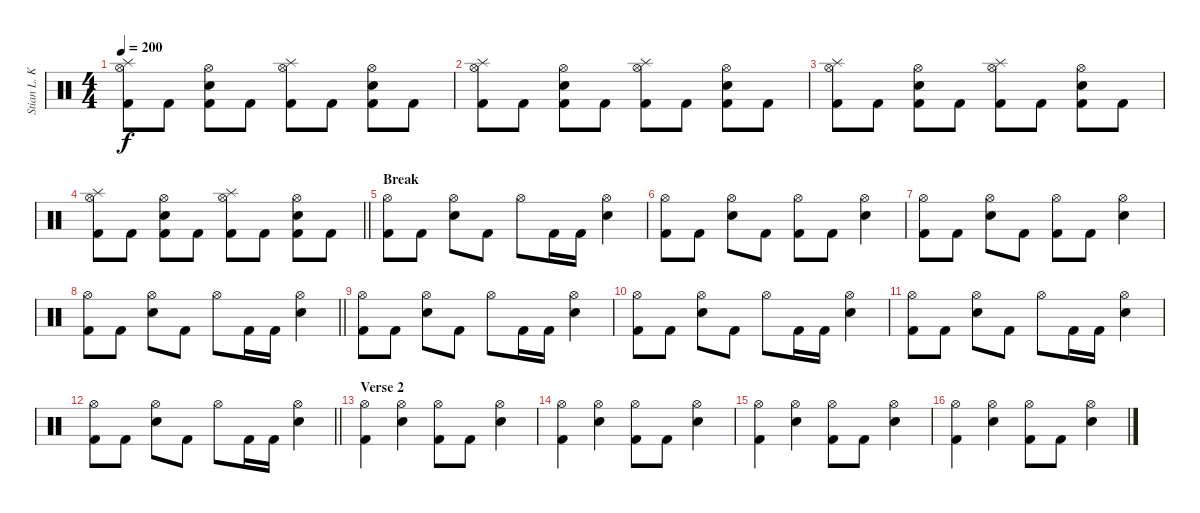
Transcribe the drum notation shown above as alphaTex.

\track ("Stian L. Kristoffersen - Drums" "Stian L. K") {instrument percussion}
\staff {score}
\articulation defaults
\ts (4 4)
\tempo 200
\clef neutral
\ks c
("Splash (hit)" "Hi-Hat (open)" "Kick (hit) 2").8{dy f} "Kick (hit) 2".8 ("Hi-Hat (open)" "Electric Snare (hit)" "Kick (hit) 2").8 "Kick (hit) 2".8 ("Splash (hit)" "Hi-Hat (open)" "Kick (hit) 2").8 "Kick (hit) 2".8 ("Hi-Hat (open)" "Electric Snare (hit)" "Kick (hit) 2").8 "Kick (hit) 2".8 |
("Splash (hit)" "Hi-Hat (open)" "Kick (hit) 2").8 "Kick (hit) 2".8 ("Hi-Hat (open)" "Electric Snare (hit)" "Kick (hit) 2").8 "Kick (hit) 2".8 ("Splash (hit)" "Hi-Hat (open)" "Kick (hit) 2").8 "Kick (hit) 2".8 ("Hi-Hat (open)" "Electric Snare (hit)" "Kick (hit) 2").8 "Kick (hit) 2".8 |
("Splash (hit)" "Hi-Hat (open)" "Kick (hit) 2").8 "Kick (hit) 2".8 ("Hi-Hat (open)" "Electric Snare (hit)" "Kick (hit) 2").8 "Kick (hit) 2".8 ("Splash (hit)" "Hi-Hat (open)" "Kick (hit) 2").8 "Kick (hit) 2".8 ("Hi-Hat (open)" "Electric Snare (hit)" "Kick (hit) 2").8 "Kick (hit) 2".8 |
\barLineRight lightlight
("Splash (hit)" "Hi-Hat (open)" "Kick (hit) 2").8 "Kick (hit) 2".8 ("Hi-Hat (open)" "Electric Snare (hit)" "Kick (hit) 2").8 "Kick (hit) 2".8 ("Splash (hit)" "Hi-Hat (open)" "Kick (hit) 2").8 "Kick (hit) 2".8 ("Hi-Hat (open)" "Electric Snare (hit)" "Kick (hit) 2").8 "Kick (hit) 2".8 |
\section ("" "Break")
("Hi-Hat (open)" "Kick (hit) 2").8 "Kick (hit) 2".8 ("Hi-Hat (open)" "Electric Snare (hit)").8 "Kick (hit) 2".8 "Hi-Hat (open)".8 "Kick (hit) 2".16 "Kick (hit) 2".16 ("Hi-Hat (open)" "Electric Snare (hit)").4 |
("Hi-Hat (open)" "Kick (hit) 2").8 "Kick (hit) 2".8 ("Hi-Hat (open)" "Electric Snare (hit)").8 "Kick (hit) 2".8 ("Hi-Hat (open)" "Kick (hit) 2").8 "Kick (hit) 2".8 ("Hi-Hat (open)" "Electric Snare (hit)").4 |
("Hi-Hat (open)" "Kick (hit) 2").8 "Kick (hit) 2".8 ("Hi-Hat (open)" "Electric Snare (hit)").8 "Kick (hit) 2".8 ("Hi-Hat (open)" "Kick (hit) 2").8 "Kick (hit) 2".8 ("Hi-Hat (open)" "Electric Snare (hit)").4 |
\barLineRight lightlight
("Hi-Hat (open)" "Kick (hit) 2").8 "Kick (hit) 2".8 ("Hi-Hat (open)" "Electric Snare (hit)").8 "Kick (hit) 2".8 "Hi-Hat (open)".8 "Kick (hit) 2".16 "Kick (hit) 2".16 ("Hi-Hat (open)" "Electric Snare (hit)").4 |
("Hi-Hat (open)" "Kick (hit) 2").8 "Kick (hit) 2".8 ("Hi-Hat (open)" "Electric Snare (hit)").8 "Kick (hit) 2".8 "Hi-Hat (open)".8 "Kick (hit) 2".16 "Kick (hit) 2".16 ("Hi-Hat (open)" "Electric Snare (hit)").4 |
("Hi-Hat (open)" "Kick (hit) 2").8 "Kick (hit) 2".8 ("Hi-Hat (open)" "Electric Snare (hit)").8 "Kick (hit) 2".8 "Hi-Hat (open)".8 "Kick (hit) 2".16 "Kick (hit) 2".16 ("Hi-Hat (open)" "Electric Snare (hit)").4 |
("Hi-Hat (open)" "Kick (hit) 2").8 "Kick (hit) 2".8 ("Hi-Hat (open)" "Electric Snare (hit)").8 "Kick (hit) 2".8 "Hi-Hat (open)".8 "Kick (hit) 2".16 "Kick (hit) 2".16 ("Hi-Hat (open)" "Electric Snare (hit)").4 |
\barLineRight lightlight
("Hi-Hat (open)" "Kick (hit) 2").8 "Kick (hit) 2".8 ("Hi-Hat (open)" "Electric Snare (hit)").8 "Kick (hit) 2".8 "Hi-Hat (open)".8 "Kick (hit) 2".16 "Kick (hit) 2".16 ("Hi-Hat (open)" "Electric Snare (hit)").4 |
\section ("" "Verse 2")
("Hi-Hat (open)" "Kick (hit) 2").4 ("Hi-Hat (open)" "Electric Snare (hit)").4 ("Hi-Hat (open)" "Kick (hit) 2").8 "Kick (hit) 2".8 ("Hi-Hat (open)" "Electric Snare (hit)").4 |
("Hi-Hat (open)" "Kick (hit) 2").4 ("Hi-Hat (open)" "Electric Snare (hit)").4 ("Hi-Hat (open)" "Kick (hit) 2").8 "Kick (hit) 2".8 ("Hi-Hat (open)" "Electric Snare (hit)").4 |
("Hi-Hat (open)" "Kick (hit) 2").4 ("Hi-Hat (open)" "Electric Snare (hit)").4 ("Hi-Hat (open)" "Kick (hit) 2").8 "Kick (hit) 2".8 ("Hi-Hat (open)" "Electric Snare (hit)").4 |
("Hi-Hat (open)" "Kick (hit) 2").4 ("Hi-Hat (open)" "Electric Snare (hit)").4 ("Hi-Hat (open)" "Kick (hit) 2").8 "Kick (hit) 2".8 ("Hi-Hat (open)" "Electric Snare (hit)").4
